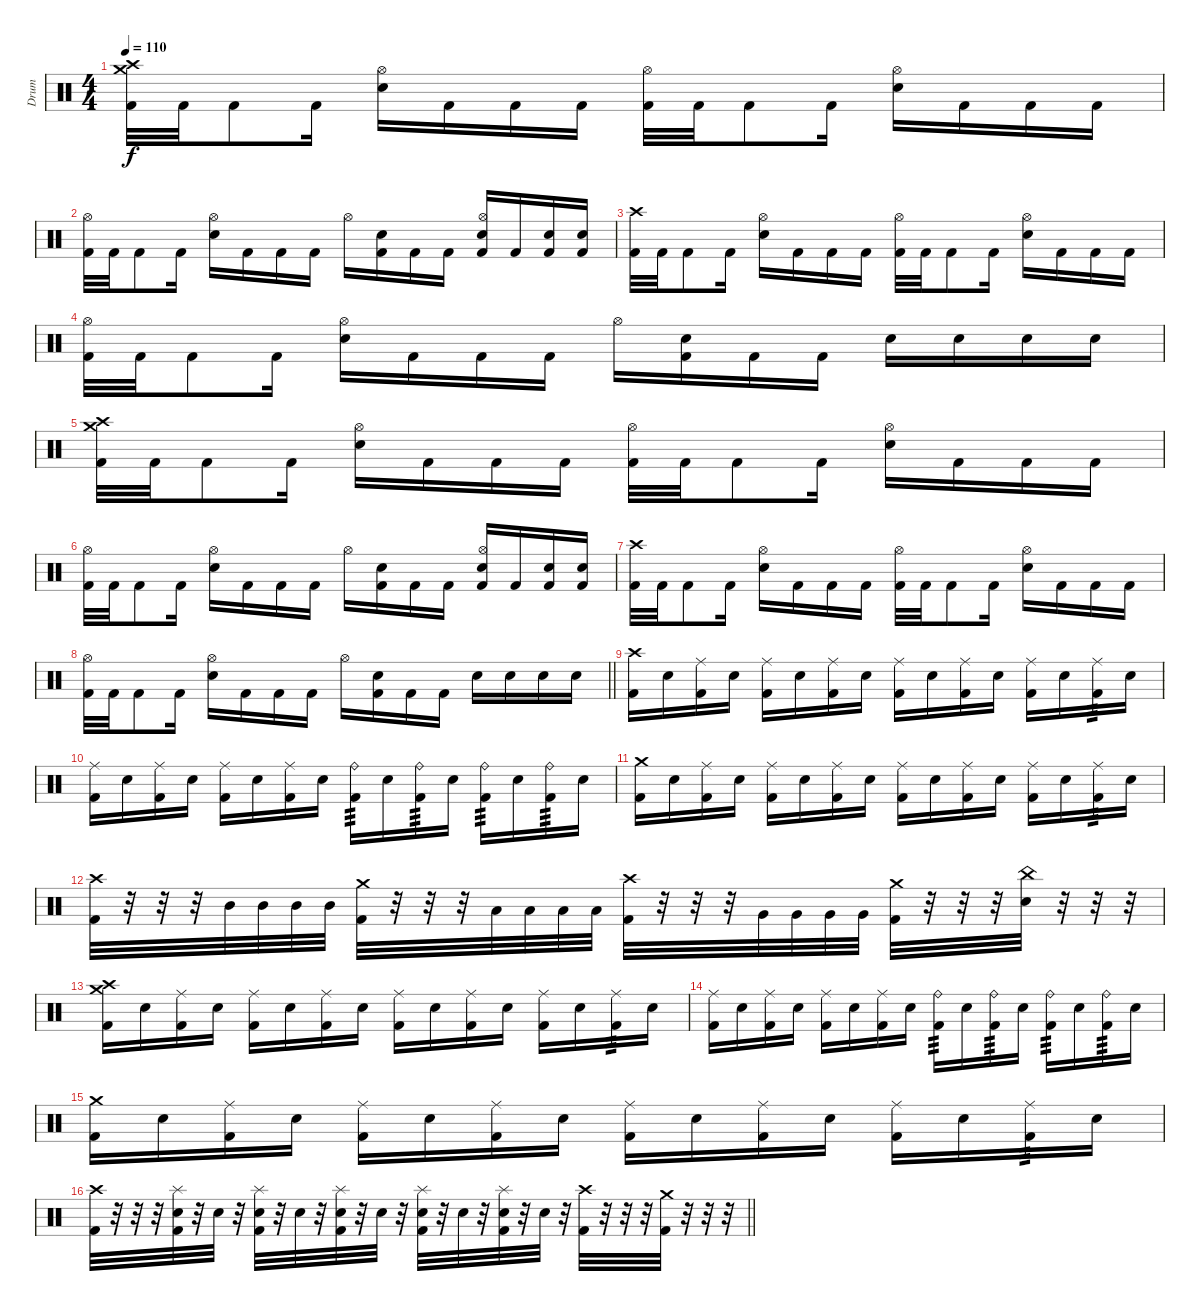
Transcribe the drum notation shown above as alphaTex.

\track ("Drum" "Drum") {instrument percussion}
\staff {score}
\articulation defaults
\ts (4 4)
\section ("" "")
\tempo 110
\clef neutral
\ks c
("Crash high (hit)" "Crash medium (hit)" "Kick (hit) 2").32{dy f} "Kick (hit) 2".32 "Kick (hit) 2".8 "Kick (hit) 2".16 ("Hi-Hat (open)" "Snare (hit) 2").16 "Kick (hit) 2".16 "Kick (hit) 2".16 "Kick (hit) 2".16 ("Hi-Hat (open)" "Kick (hit) 2").32 "Kick (hit) 2".32 "Kick (hit) 2".8 "Kick (hit) 2".16 ("Hi-Hat (open)" "Snare (hit) 2").16 "Kick (hit) 2".16 "Kick (hit) 2".16 "Kick (hit) 2".16 |
("Hi-Hat (open)" "Kick (hit) 2").32 "Kick (hit) 2".32 "Kick (hit) 2".8 "Kick (hit) 2".16 ("Hi-Hat (open)" "Snare (hit) 2").16 "Kick (hit) 2".16 "Kick (hit) 2".16 "Kick (hit) 2".16 "Hi-Hat (open)".16 ("Snare (hit) 2" "Kick (hit) 2").16 "Kick (hit) 2".16 "Kick (hit) 2".16 ("Hi-Hat (open)" "Snare (hit) 2" "Kick (hit) 2").16 "Kick (hit) 2".16 ("Snare (hit) 2" "Kick (hit) 2").16 ("Snare (hit) 2" "Kick (hit) 2").16 |
("Crash high (hit)" "Kick (hit) 2").32 "Kick (hit) 2".32 "Kick (hit) 2".8 "Kick (hit) 2".16 ("Hi-Hat (open)" "Snare (hit) 2").16 "Kick (hit) 2".16 "Kick (hit) 2".16 "Kick (hit) 2".16 ("Hi-Hat (open)" "Kick (hit) 2").32 "Kick (hit) 2".32 "Kick (hit) 2".8 "Kick (hit) 2".16 ("Hi-Hat (open)" "Snare (hit) 2").16 "Kick (hit) 2".16 "Kick (hit) 2".16 "Kick (hit) 2".16 |
("Hi-Hat (open)" "Kick (hit) 2").32 "Kick (hit) 2".32 "Kick (hit) 2".8 "Kick (hit) 2".16 ("Hi-Hat (open)" "Snare (hit) 2").16 "Kick (hit) 2".16 "Kick (hit) 2".16 "Kick (hit) 2".16 "Hi-Hat (open)".16 ("Snare (hit) 2" "Kick (hit) 2").16 "Kick (hit) 2".16 "Kick (hit) 2".16 "Snare (hit) 2".16 "Snare (hit) 2".16 "Snare (hit) 2".16 "Snare (hit) 2".16 |
("Crash high (hit)" "Crash medium (hit)" "Kick (hit) 2").32 "Kick (hit) 2".32 "Kick (hit) 2".8 "Kick (hit) 2".16 ("Hi-Hat (open)" "Snare (hit) 2").16 "Kick (hit) 2".16 "Kick (hit) 2".16 "Kick (hit) 2".16 ("Hi-Hat (open)" "Kick (hit) 2").32 "Kick (hit) 2".32 "Kick (hit) 2".8 "Kick (hit) 2".16 ("Hi-Hat (open)" "Snare (hit) 2").16 "Kick (hit) 2".16 "Kick (hit) 2".16 "Kick (hit) 2".16 |
("Hi-Hat (open)" "Kick (hit) 2").32 "Kick (hit) 2".32 "Kick (hit) 2".8 "Kick (hit) 2".16 ("Hi-Hat (open)" "Snare (hit) 2").16 "Kick (hit) 2".16 "Kick (hit) 2".16 "Kick (hit) 2".16 "Hi-Hat (open)".16 ("Snare (hit) 2" "Kick (hit) 2").16 "Kick (hit) 2".16 "Kick (hit) 2".16 ("Hi-Hat (open)" "Snare (hit) 2" "Kick (hit) 2").16 "Kick (hit) 2".16 ("Snare (hit) 2" "Kick (hit) 2").16 ("Snare (hit) 2" "Kick (hit) 2").16 |
("Crash high (hit)" "Kick (hit) 2").32 "Kick (hit) 2".32 "Kick (hit) 2".8 "Kick (hit) 2".16 ("Hi-Hat (open)" "Snare (hit) 2").16 "Kick (hit) 2".16 "Kick (hit) 2".16 "Kick (hit) 2".16 ("Hi-Hat (open)" "Kick (hit) 2").32 "Kick (hit) 2".32 "Kick (hit) 2".8 "Kick (hit) 2".16 ("Hi-Hat (open)" "Snare (hit) 2").16 "Kick (hit) 2".16 "Kick (hit) 2".16 "Kick (hit) 2".16 |
\barLineRight lightlight
("Hi-Hat (open)" "Kick (hit) 2").32 "Kick (hit) 2".32 "Kick (hit) 2".8 "Kick (hit) 2".16 ("Hi-Hat (open)" "Snare (hit) 2").16 "Kick (hit) 2".16 "Kick (hit) 2".16 "Kick (hit) 2".16 "Hi-Hat (open)".16 ("Snare (hit) 2" "Kick (hit) 2").16 "Kick (hit) 2".16 "Kick (hit) 2".16 "Snare (hit) 2".16 "Snare (hit) 2".16 "Snare (hit) 2".16 "Snare (hit) 2".16 |
\section ("" "")
("Crash high (hit)" "Kick (hit) 2").16 "Snare (hit) 2".16 ("Ride (middle)" "Kick (hit) 2").16 "Snare (hit) 2".16 ("Ride (middle)" "Kick (hit) 2").16 "Snare (hit) 2".16 ("Ride (middle)" "Kick (hit) 2").16 "Snare (hit) 2".16 ("Ride (middle)" "Kick (hit) 2").16 "Snare (hit) 2".16 ("Ride (middle)" "Kick (hit) 2").16 "Snare (hit) 2".16 ("Ride (middle)" "Kick (hit) 2").16 "Snare (hit) 2".16 ("Ride (middle)" "Kick (hit) 2").16{tp 3} "Snare (hit) 2".16 |
("Ride (middle)" "Kick (hit) 2").16 "Snare (hit) 2".16 ("Ride (middle)" "Kick (hit) 2").16 "Snare (hit) 2".16 ("Ride (middle)" "Kick (hit) 2").16 "Snare (hit) 2".16 ("Ride (middle)" "Kick (hit) 2").16 "Snare (hit) 2".16 ("Ride (bell)" "Kick (hit) 2").16{tp 3} "Snare (hit) 2".16 ("Ride (bell)" "Kick (hit) 2").16{tp 3} "Snare (hit) 2".16 ("Ride (bell)" "Kick (hit) 2").16{tp 3} "Snare (hit) 2".16 ("Ride (bell)" "Kick (hit) 2").16{tp 3} "Snare (hit) 2".16 |
("Crash medium (hit)" "Kick (hit) 2").16 "Snare (hit) 2".16 ("Ride (middle)" "Kick (hit) 2").16 "Snare (hit) 2".16 ("Ride (middle)" "Kick (hit) 2").16 "Snare (hit) 2".16 ("Ride (middle)" "Kick (hit) 2").16 "Snare (hit) 2".16 ("Ride (middle)" "Kick (hit) 2").16 "Snare (hit) 2".16 ("Ride (middle)" "Kick (hit) 2").16 "Snare (hit) 2".16 ("Ride (middle)" "Kick (hit) 2").16 "Snare (hit) 2".16 ("Ride (middle)" "Kick (hit) 2").16{tp 3} "Snare (hit) 2".16 |
("Crash high (hit)" "Kick (hit) 2").32 r.32 r.32 r.32 "Mid Tom (hit)".32 "Mid Tom (hit)".32 "Mid Tom (hit)".32 "Mid Tom (hit)".32 ("Crash medium (hit)" "Kick (hit) 2").32 r.32 r.32 r.32 "Low Tom (hit)".32 "Low Tom (hit)".32 "Low Tom (hit)".32 "Low Tom (hit)".32 ("Crash high (hit)" "Kick (hit) 2").32 r.32 r.32 r.32 "Very Low Tom (hit)".32 "Very Low Tom (hit)".32 "Very Low Tom (hit)".32 "Very Low Tom (hit)".32 ("Crash medium (hit)" "Kick (hit) 2").32 r.32 r.32 r.32 ("China (hit)" "Snare (hit) 2").32 r.32 r.32 r.32 |
("Crash high (hit)" "Crash medium (hit)" "Kick (hit) 2").16 "Snare (hit) 2".16 ("Ride (middle)" "Kick (hit) 2").16 "Snare (hit) 2".16 ("Ride (middle)" "Kick (hit) 2").16 "Snare (hit) 2".16 ("Ride (middle)" "Kick (hit) 2").16 "Snare (hit) 2".16 ("Ride (middle)" "Kick (hit) 2").16 "Snare (hit) 2".16 ("Ride (middle)" "Kick (hit) 2").16 "Snare (hit) 2".16 ("Ride (middle)" "Kick (hit) 2").16 "Snare (hit) 2".16 ("Ride (middle)" "Kick (hit) 2").16{tp 3} "Snare (hit) 2".16 |
("Ride (middle)" "Kick (hit) 2").16 "Snare (hit) 2".16 ("Ride (middle)" "Kick (hit) 2").16 "Snare (hit) 2".16 ("Ride (middle)" "Kick (hit) 2").16 "Snare (hit) 2".16 ("Ride (middle)" "Kick (hit) 2").16 "Snare (hit) 2".16 ("Ride (bell)" "Kick (hit) 2").16{tp 3} "Snare (hit) 2".16 ("Ride (bell)" "Kick (hit) 2").16{tp 3} "Snare (hit) 2".16 ("Ride (bell)" "Kick (hit) 2").16{tp 3} "Snare (hit) 2".16 ("Ride (bell)" "Kick (hit) 2").16{tp 3} "Snare (hit) 2".16 |
("Crash medium (hit)" "Kick (hit) 2").16 "Snare (hit) 2".16 ("Ride (middle)" "Kick (hit) 2").16 "Snare (hit) 2".16 ("Ride (middle)" "Kick (hit) 2").16 "Snare (hit) 2".16 ("Ride (middle)" "Kick (hit) 2").16 "Snare (hit) 2".16 ("Ride (middle)" "Kick (hit) 2").16 "Snare (hit) 2".16 ("Ride (middle)" "Kick (hit) 2").16 "Snare (hit) 2".16 ("Ride (middle)" "Kick (hit) 2").16 "Snare (hit) 2".16 ("Ride (middle)" "Kick (hit) 2").16{tp 3} "Snare (hit) 2".16 |
\barLineRight lightlight
("Crash high (hit)" "Kick (hit) 2").32 r.32 r.32 r.32 ("Splash (hit)" "Snare (hit) 2" "Kick (hit) 2").32 r.32 "Snare (hit) 2".32 r.32 ("Splash (hit)" "Snare (hit) 2" "Kick (hit) 2").32 r.32 "Snare (hit) 2".32 r.32 ("Splash (hit)" "Snare (hit) 2" "Kick (hit) 2").32 r.32 "Snare (hit) 2".32 r.32 ("Splash (hit)" "Snare (hit) 2" "Kick (hit) 2").32 r.32 "Snare (hit) 2".32 r.32 ("Splash (hit)" "Snare (hit) 2" "Kick (hit) 2").32 r.32 "Snare (hit) 2".32 r.32 ("Crash high (hit)" "Kick (hit) 2").32 r.32 r.32 r.32 ("Crash medium (hit)" "Kick (hit) 2").32 r.32 r.32 r.32
